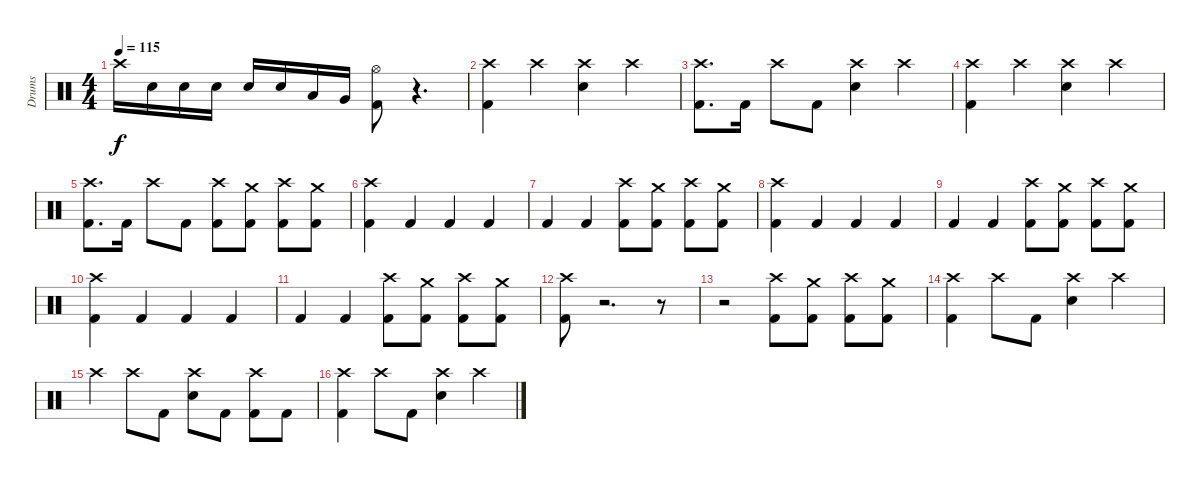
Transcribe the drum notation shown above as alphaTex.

\track ("Drums" "Drums") {instrument percussion}
\staff {score}
\articulation defaults
\ts (4 4)
\tempo 115
\clef neutral
\ks c "Crash high (hit)".16{dy f} "Electric Snare (hit)".16 "Electric Snare (hit)".16 "Electric Snare (hit)".16 "Electric Snare (hit)".16 "Electric Snare (hit)".16 "Low Tom (hit)".16 "Very Low Tom (hit)".16
("Hi-Hat (open)" "Kick (hit) 2").8 r.4{d volume 0} |
("Crash high (hit)" "Kick (hit) 2").4{volume 14} "Crash high (hit)".4 ("Crash high (hit)" "Electric Snare (hit)").4 "Crash high (hit)".4 |
("Crash high (hit)" "Kick (hit) 2").8{d} "Kick (hit) 2".16 "Crash high (hit)".8 "Kick (hit) 2".8 ("Crash high (hit)" "Electric Snare (hit)").4 "Crash high (hit)".4 |
("Crash high (hit)" "Kick (hit) 2").4 "Crash high (hit)".4 ("Crash high (hit)" "Electric Snare (hit)").4 "Crash high (hit)".4 |
("Crash high (hit)" "Kick (hit) 2").8{d} "Kick (hit) 2".16 "Crash high (hit)".8 "Kick (hit) 2".8 ("Crash high (hit)" "Kick (hit) 2").8 ("Crash medium (hit)" "Kick (hit) 2").8 ("Crash high (hit)" "Kick (hit) 2").8 ("Crash medium (hit)" "Kick (hit) 2").8 |
("Crash high (hit)" "Kick (hit) 2").4 "Kick (hit) 2".4 "Kick (hit) 2".4 "Kick (hit) 2".4 |
"Kick (hit) 2".4 "Kick (hit) 2".4 ("Crash high (hit)" "Kick (hit) 2").8 ("Crash medium (hit)" "Kick (hit) 2").8 ("Crash high (hit)" "Kick (hit) 2").8 ("Crash medium (hit)" "Kick (hit) 2").8 |
("Crash high (hit)" "Kick (hit) 2").4 "Kick (hit) 2".4 "Kick (hit) 2".4 "Kick (hit) 2".4 |
"Kick (hit) 2".4 "Kick (hit) 2".4 ("Crash high (hit)" "Kick (hit) 2").8 ("Crash medium (hit)" "Kick (hit) 2").8 ("Crash high (hit)" "Kick (hit) 2").8 ("Crash medium (hit)" "Kick (hit) 2").8 |
("Crash high (hit)" "Kick (hit) 2").4 "Kick (hit) 2".4 "Kick (hit) 2".4 "Kick (hit) 2".4 |
"Kick (hit) 2".4 "Kick (hit) 2".4 ("Crash high (hit)" "Kick (hit) 2").8 ("Crash medium (hit)" "Kick (hit) 2").8 ("Crash high (hit)" "Kick (hit) 2").8 ("Crash medium (hit)" "Kick (hit) 2").8 |
("Crash high (hit)" "Kick (hit) 2").8 r.2{d volume 0} r.8 |
r.2 ("Crash high (hit)" "Kick (hit) 2").8{volume 14} ("Crash medium (hit)" "Kick (hit) 2").8 ("Crash high (hit)" "Kick (hit) 2").8 ("Crash medium (hit)" "Kick (hit) 2").8 |
("Crash high (hit)" "Kick (hit) 2").4 "Crash high (hit)".8 "Kick (hit) 2".8 ("Crash high (hit)" "Electric Snare (hit)").4 "Crash high (hit)".4 |
"Crash high (hit)".4 "Crash high (hit)".8 "Kick (hit) 2".8 ("Crash high (hit)" "Electric Snare (hit)").8 "Kick (hit) 2".8 ("Crash high (hit)" "Kick (hit) 2").8 "Kick (hit) 2".8 |
("Crash high (hit)" "Kick (hit) 2").4 "Crash high (hit)".8 "Kick (hit) 2".8 ("Crash high (hit)" "Electric Snare (hit)").4 "Crash high (hit)".4
